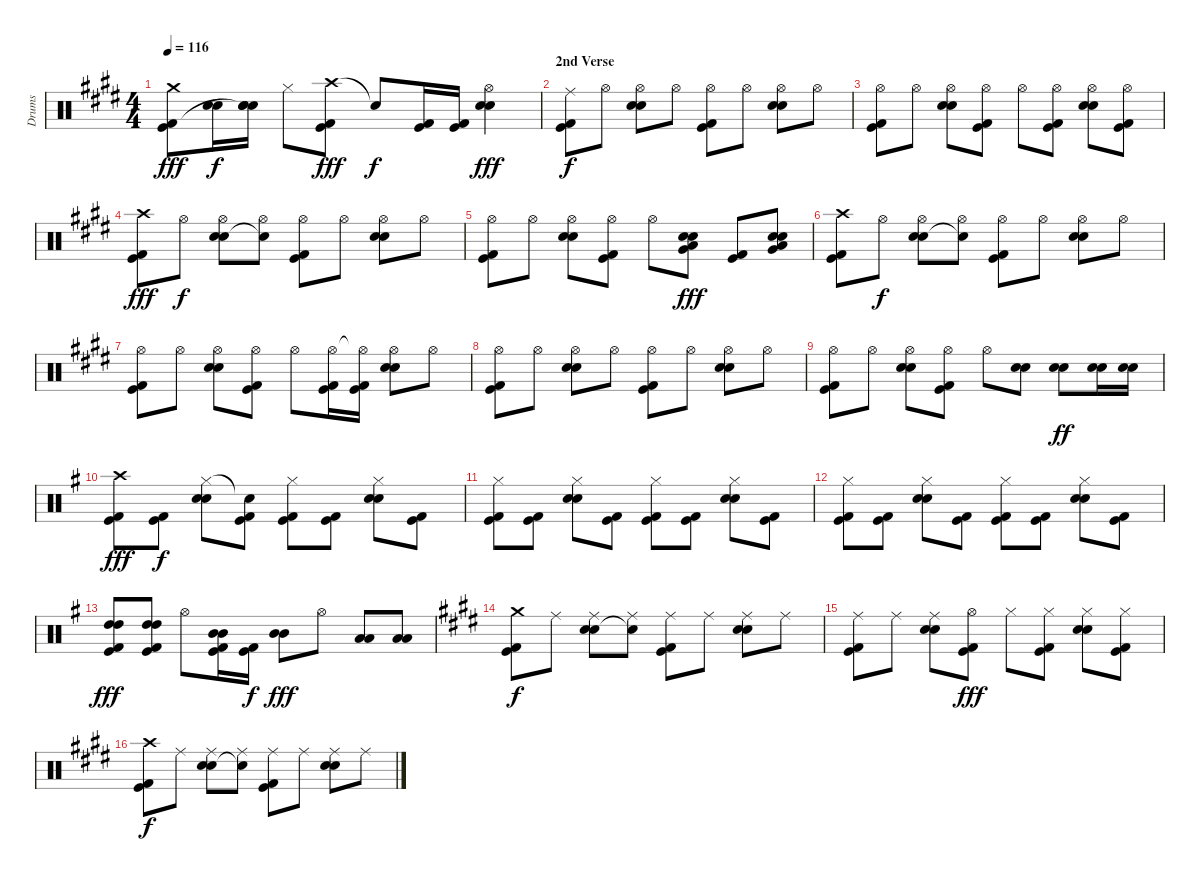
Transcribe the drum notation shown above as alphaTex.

\track ("Drums" "Drums") {instrument percussion}
\staff {score}
\articulation defaults
\ts (4 4)
\tempo 116
\clef neutral
\ks e
("Crash medium (hit)" "Kick (hit)" "Kick (hit) 2").8{dy fff} ("Electric Snare (hit)" "Snare (hit) 2").16{dy f} ("Electric Snare (hit)" "Snare (hit) 2" "Snare (hit)"{t}).16 "Hi-Hat (closed)".8 ("Crash high (hit)" "Kick (hit)" "Kick (hit) 2").8{dy fff} "Snare (hit)"{t}.8{dy f} ("Kick (hit)" "Kick (hit) 2").16 ("Kick (hit)" "Kick (hit) 2").16 ("Hi-Hat (open)" "Electric Snare (hit)" "Snare (hit) 2").4{dy fff} |
\section ("" "2nd Verse")
("Ride (middle)" "Kick (hit)" "Kick (hit) 2").8{dy f} "Hi-Hat (open)".8 ("Hi-Hat (open)" "Electric Snare (hit)" "Snare (hit) 2").8 "Hi-Hat (open)".8 ("Hi-Hat (open)" "Kick (hit)" "Kick (hit) 2").8 "Hi-Hat (open)".8 ("Hi-Hat (open)" "Electric Snare (hit)" "Snare (hit) 2").8 "Hi-Hat (open)".8 |
("Hi-Hat (open)" "Kick (hit)" "Kick (hit) 2").8 "Hi-Hat (open)".8 ("Hi-Hat (open)" "Electric Snare (hit)" "Snare (hit) 2").8 ("Hi-Hat (open)" "Kick (hit)" "Kick (hit) 2").8 "Hi-Hat (open)".8 ("Hi-Hat (open)" "Kick (hit)" "Kick (hit) 2").8 ("Hi-Hat (open)" "Electric Snare (hit)" "Snare (hit) 2").8 ("Hi-Hat (open)" "Kick (hit)" "Kick (hit) 2").8 |
("Crash high (hit)" "Kick (hit)" "Kick (hit) 2").8{dy fff} "Hi-Hat (open)".8{dy f} ("Hi-Hat (open)" "Electric Snare (hit)" "Snare (hit) 2").8 ("Hi-Hat (open)" "Snare (hit)"{t}).8 ("Hi-Hat (open)" "Kick (hit)" "Kick (hit) 2").8 "Hi-Hat (open)".8 ("Hi-Hat (open)" "Electric Snare (hit)" "Snare (hit) 2").8 "Hi-Hat (open)".8 |
("Hi-Hat (open)" "Kick (hit)" "Kick (hit) 2").8 "Hi-Hat (open)".8 ("Hi-Hat (open)" "Electric Snare (hit)" "Snare (hit) 2").8 ("Hi-Hat (open)" "Kick (hit)" "Kick (hit) 2").8 "Hi-Hat (open)".8 ("Electric Snare (hit)" "Snare (hit) 2" "Very Low Tom (hit)" "Low Floor Tom (hit)").8{dy fff} ("Kick (hit)" "Kick (hit) 2").8 ("Electric Snare (hit)" "Snare (hit) 2" "Very Low Tom (hit)" "Low Floor Tom (hit)").8 |
("Crash high (hit)" "Kick (hit)" "Kick (hit) 2").8 "Hi-Hat (open)".8{dy f} ("Hi-Hat (open)" "Electric Snare (hit)" "Snare (hit) 2").8 ("Hi-Hat (open)" "Snare (hit)"{t}).8 ("Hi-Hat (open)" "Kick (hit)" "Kick (hit) 2").8 "Hi-Hat (open)".8 ("Hi-Hat (open)" "Electric Snare (hit)" "Snare (hit) 2").8 "Hi-Hat (open)".8 |
("Hi-Hat (open)" "Kick (hit)" "Kick (hit) 2").8 "Hi-Hat (open)".8 ("Hi-Hat (open)" "Electric Snare (hit)" "Snare (hit) 2").8 ("Hi-Hat (open)" "Kick (hit)" "Kick (hit) 2").8 "Hi-Hat (open)".8 ("Hi-Hat (open)" "Kick (hit)" "Kick (hit) 2").16 ("Hi-Hat (open)"{t} "Kick (hit)" "Kick (hit) 2").16 ("Hi-Hat (open)" "Electric Snare (hit)" "Snare (hit) 2").8 "Hi-Hat (open)".8 |
("Hi-Hat (open)" "Kick (hit)" "Kick (hit) 2").8 "Hi-Hat (open)".8 ("Hi-Hat (open)" "Electric Snare (hit)" "Snare (hit) 2").8 "Hi-Hat (open)".8 ("Hi-Hat (open)" "Kick (hit)" "Kick (hit) 2").8 "Hi-Hat (open)".8 ("Hi-Hat (open)" "Electric Snare (hit)" "Snare (hit) 2").8 "Hi-Hat (open)".8 |
("Hi-Hat (open)" "Kick (hit)" "Kick (hit) 2").8 "Hi-Hat (open)".8 ("Hi-Hat (open)" "Electric Snare (hit)" "Snare (hit) 2").8 ("Hi-Hat (open)" "Kick (hit)" "Kick (hit) 2").8 "Hi-Hat (open)".8 ("Electric Snare (hit)" "Snare (hit) 2").8 ("Electric Snare (hit)" "Snare (hit) 2").8{dy ff} ("Electric Snare (hit)" "Snare (hit) 2").16 ("Electric Snare (hit)" "Snare (hit) 2").16 |
\ks g
("Crash high (hit)" "Kick (hit)" "Kick (hit) 2").8{dy fff} ("Kick (hit)" "Kick (hit) 2").8{dy f} ("Hi-Hat (closed)" "Electric Snare (hit)" "Snare (hit) 2").8 ("Snare (hit)"{t} "Kick (hit)" "Kick (hit) 2").8 ("Hi-Hat (closed)" "Kick (hit)" "Kick (hit) 2").8 ("Kick (hit)" "Kick (hit) 2").8 ("Hi-Hat (closed)" "Electric Snare (hit)" "Snare (hit) 2").8 ("Kick (hit)" "Kick (hit) 2").8 |
("Hi-Hat (closed)" "Kick (hit)" "Kick (hit) 2").8 ("Kick (hit)" "Kick (hit) 2").8 ("Hi-Hat (closed)" "Electric Snare (hit)" "Snare (hit) 2").8 ("Kick (hit)" "Kick (hit) 2").8 ("Hi-Hat (closed)" "Kick (hit)" "Kick (hit) 2").8 ("Kick (hit)" "Kick (hit) 2").8 ("Hi-Hat (closed)" "Electric Snare (hit)" "Snare (hit) 2").8 ("Kick (hit)" "Kick (hit) 2").8 |
("Hi-Hat (closed)" "Kick (hit)" "Kick (hit) 2").8 ("Kick (hit)" "Kick (hit) 2").8 ("Hi-Hat (closed)" "Electric Snare (hit)" "Snare (hit) 2").8 ("Kick (hit)" "Kick (hit) 2").8 ("Hi-Hat (closed)" "Kick (hit)" "Kick (hit) 2").8 ("Kick (hit)" "Kick (hit) 2").8 ("Hi-Hat (closed)" "Electric Snare (hit)" "Snare (hit) 2").8 ("Kick (hit)" "Kick (hit) 2").8 |
("High Tom (hit)" "High Tom (hit)" "Kick (hit)" "Kick (hit) 2").8{dy fff} ("High Tom (hit)" "High Tom (hit)" "Kick (hit)" "Kick (hit) 2").8 "Hi-Hat (open)".8 ("Mid Tom (hit)" "Mid Tom (hit)" "Kick (hit)" "Kick (hit) 2").16 ("Kick (hit)" "Kick (hit) 2").16{dy f} ("Mid Tom (hit)" "Mid Tom (hit)").8{dy fff} "Hi-Hat (open)".8 ("Low Tom (hit)" "Low Tom (hit)").8 ("Low Tom (hit)" "Low Tom (hit)").8 |
\ks e
("Crash medium (hit)" "Kick (hit)" "Kick (hit) 2").8{dy f} "Ride (middle)".8 ("Ride (middle)" "Electric Snare (hit)" "Snare (hit) 2").8 ("Ride (middle)" "Snare (hit)"{t}).8 ("Ride (middle)" "Kick (hit)" "Kick (hit) 2").8 "Ride (middle)".8 ("Ride (middle)" "Electric Snare (hit)" "Snare (hit) 2").8 "Ride (middle)".8 |
("Ride (middle)" "Kick (hit)" "Kick (hit) 2").8 "Ride (middle)".8 ("Ride (middle)" "Electric Snare (hit)" "Snare (hit) 2").8 ("Hi-Hat (open)" "Kick (hit)" "Kick (hit) 2").8{dy fff} "Hi-Hat (closed)".8 ("Hi-Hat (closed)" "Kick (hit)" "Kick (hit) 2").8 ("Hi-Hat (closed)" "Electric Snare (hit)" "Snare (hit) 2").8 ("Hi-Hat (closed)" "Kick (hit)" "Kick (hit) 2").8 |
("Crash high (hit)" "Kick (hit)" "Kick (hit) 2").8{dy f} "Ride (middle)".8 ("Ride (middle)" "Electric Snare (hit)" "Snare (hit) 2").8 ("Ride (middle)" "Snare (hit)"{t}).8 ("Ride (middle)" "Kick (hit)" "Kick (hit) 2").8 "Ride (middle)".8 ("Ride (middle)" "Electric Snare (hit)" "Snare (hit) 2").8 "Ride (middle)".8
